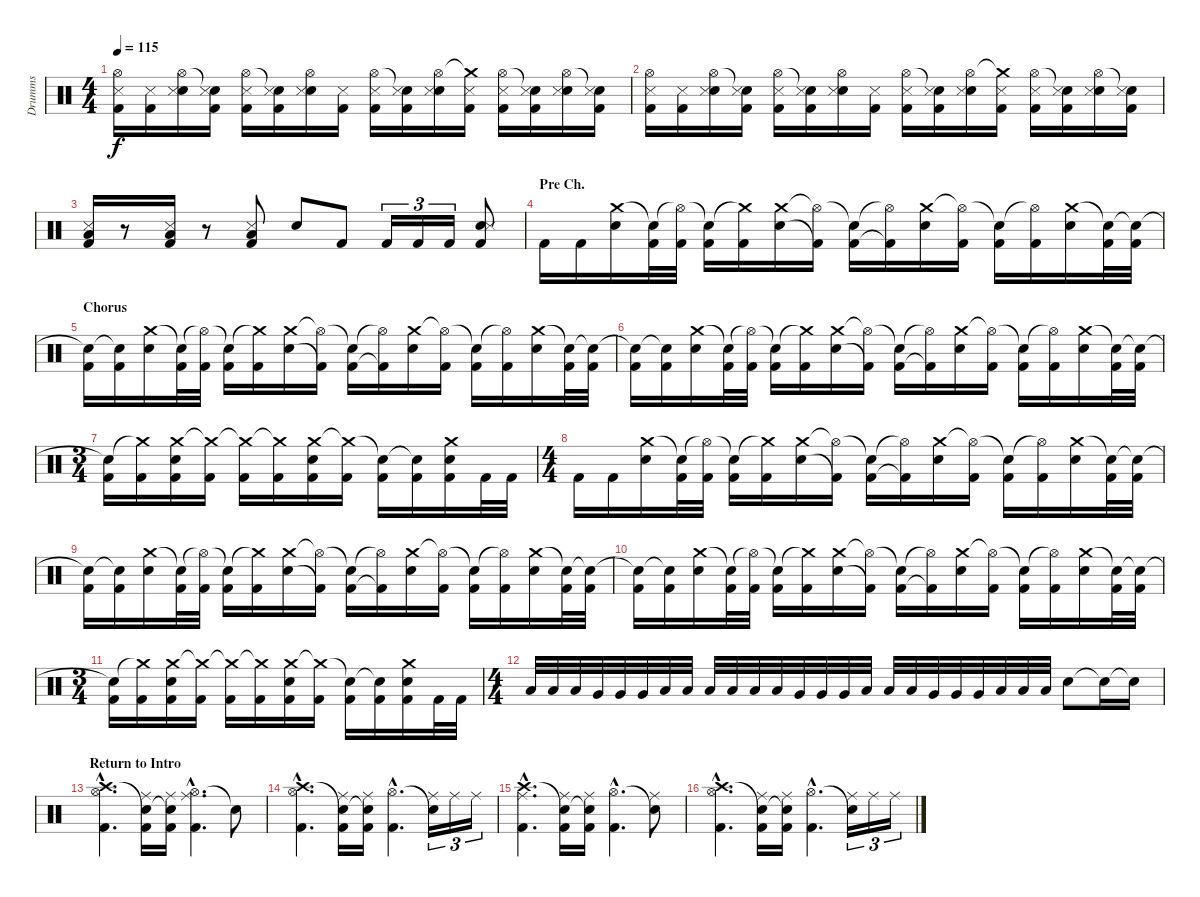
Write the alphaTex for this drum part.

\track ("Drumms" "Drumms") {instrument percussion}
\staff {score}
\articulation defaults
\ts (4 4)
\tempo 115
\clef neutral
\ks c
("Hi-Hat (open)" "Kick (hit) 2" "Snare (side stick) 3").16{dy f} ("Kick (hit) 2" "Snare (side stick) 3").16 ("Hi-Hat (open)" "Electric Snare (hit)" "Snare (side stick) 3").16 ("Snare (hit)"{t} "Kick (hit) 2" "Snare (side stick) 3").16 ("Hi-Hat (open)" "Kick (hit) 2" "Snare (side stick) 3").16 ("Snare (hit)"{t} "Kick (hit) 2" "Snare (side stick) 3").16 ("Hi-Hat (open)" "Electric Snare (hit)" "Snare (side stick) 3").16 ("Kick (hit) 2" "Snare (side stick) 3").16 ("Hi-Hat (open)" "Kick (hit) 2" "Snare (side stick) 3").16 ("Snare (hit)"{t} "Kick (hit) 2" "Snare (side stick) 3").16 ("Hi-Hat (open)" "Electric Snare (hit)" "Snare (side stick) 3").16 ("Crash medium (hit)"{t} "Kick (hit) 2" "Snare (side stick) 3").16 ("Hi-Hat (open)" "Kick (hit) 2" "Snare (side stick) 3").16 ("Snare (hit)"{t} "Kick (hit) 2" "Snare (side stick) 3").16 ("Hi-Hat (open)" "Electric Snare (hit)" "Snare (side stick) 3").16 ("Snare (hit)"{t} "Kick (hit) 2" "Snare (side stick) 3").16 |
("Hi-Hat (open)" "Kick (hit) 2" "Snare (side stick) 3").16 ("Kick (hit) 2" "Snare (side stick) 3").16 ("Hi-Hat (open)" "Electric Snare (hit)" "Snare (side stick) 3").16 ("Snare (hit)"{t} "Kick (hit) 2" "Snare (side stick) 3").16 ("Hi-Hat (open)" "Kick (hit) 2" "Snare (side stick) 3").16 ("Snare (hit)"{t} "Kick (hit) 2" "Snare (side stick) 3").16 ("Hi-Hat (open)" "Electric Snare (hit)" "Snare (side stick) 3").16 ("Kick (hit) 2" "Snare (side stick) 3").16 ("Hi-Hat (open)" "Kick (hit) 2" "Snare (side stick) 3").16 ("Snare (hit)"{t} "Kick (hit) 2" "Snare (side stick) 3").16 ("Hi-Hat (open)" "Electric Snare (hit)" "Snare (side stick) 3").16 ("Crash medium (hit)"{t} "Kick (hit) 2" "Snare (side stick) 3").16 ("Hi-Hat (open)" "Kick (hit) 2" "Snare (side stick) 3").16 ("Snare (hit)"{t} "Kick (hit) 2" "Snare (side stick) 3").16 ("Hi-Hat (open)" "Electric Snare (hit)" "Snare (side stick) 3").16 ("Snare (hit)"{t} "Kick (hit) 2" "Snare (side stick) 3").16 |
("Low Floor Tom (hit)" "Kick (hit) 2" "Snare (side stick) 3").16 r.8 ("Low Floor Tom (hit)" "Kick (hit) 2" "Snare (side stick) 3").16 r.8 ("Low Floor Tom (hit)" "Kick (hit) 2" "Snare (side stick) 3").8 "Electric Snare (hit)".8 "Kick (hit) 2".8 "Kick (hit) 2".16{tu (3 2)} "Kick (hit) 2".16{tu (3 2)} "Kick (hit) 2".16{tu (3 2)} ("Electric Snare (hit)" "Snare (side stick) 3" "Kick (hit) 2").8 |
\section ("" "Pre Ch.")
"Kick (hit) 2".16 "Kick (hit) 2".16 ("Crash medium (hit)" "Electric Snare (hit)").16 ("Snare (hit)"{t} "Kick (hit) 2").32 ("Hi-Hat (open)"{t} "Kick (hit) 2").32 ("Snare (hit)"{t} "Kick (hit) 2").16 ("Crash medium (hit)"{t} "Kick (hit) 2").16 ("Crash medium (hit)" "Electric Snare (hit)").16 ("Hi-Hat (open)"{t} "Kick (hit) 2"{t}).16 ("Snare (hit)"{t} "Kick (hit) 2").16 ("Hi-Hat (open)"{t} "Kick (hit) 2"{t}).16 ("Crash medium (hit)" "Electric Snare (hit)").16 ("Hi-Hat (open)"{t} "Kick (hit) 2").16 ("Snare (hit)"{t} "Kick (hit) 2").16 ("Hi-Hat (open)"{t} "Kick (hit) 2").16 ("Crash medium (hit)" "Electric Snare (hit)").16 ("Snare (hit)"{t} "Kick (hit) 2").32 ("Snare (hit)"{t} "Kick (hit) 2").32 |
\section ("" "Chorus")
("Snare (hit)"{t} "Kick (hit) 2").16 ("Snare (hit)"{t} "Kick (hit) 2").16 ("Crash medium (hit)" "Electric Snare (hit)").16 ("Snare (hit)"{t} "Kick (hit) 2").32 ("Hi-Hat (open)"{t} "Kick (hit) 2").32 ("Snare (hit)"{t} "Kick (hit) 2").16 ("Crash medium (hit)"{t} "Kick (hit) 2").16 ("Crash medium (hit)" "Electric Snare (hit)").16 ("Hi-Hat (open)"{t} "Kick (hit) 2"{t}).16 ("Snare (hit)"{t} "Kick (hit) 2").16 ("Hi-Hat (open)"{t} "Kick (hit) 2"{t}).16 ("Crash medium (hit)" "Electric Snare (hit)").16 ("Hi-Hat (open)"{t} "Kick (hit) 2").16 ("Snare (hit)"{t} "Kick (hit) 2").16 ("Hi-Hat (open)"{t} "Kick (hit) 2").16 ("Crash medium (hit)" "Electric Snare (hit)").16 ("Snare (hit)"{t} "Kick (hit) 2").32 ("Snare (hit)"{t} "Kick (hit) 2").32 |
("Snare (hit)"{t} "Kick (hit) 2").16 ("Snare (hit)"{t} "Kick (hit) 2").16 ("Crash medium (hit)" "Electric Snare (hit)").16 ("Snare (hit)"{t} "Kick (hit) 2").32 ("Hi-Hat (open)"{t} "Kick (hit) 2").32 ("Snare (hit)"{t} "Kick (hit) 2").16 ("Crash medium (hit)"{t} "Kick (hit) 2").16 ("Crash medium (hit)" "Electric Snare (hit)").16 ("Hi-Hat (open)"{t} "Kick (hit) 2"{t}).16 ("Snare (hit)"{t} "Kick (hit) 2").16 ("Hi-Hat (open)"{t} "Kick (hit) 2"{t}).16 ("Crash medium (hit)" "Electric Snare (hit)").16 ("Hi-Hat (open)"{t} "Kick (hit) 2").16 ("Snare (hit)"{t} "Kick (hit) 2").16 ("Hi-Hat (open)"{t} "Kick (hit) 2").16 ("Crash medium (hit)" "Electric Snare (hit)").16 ("Snare (hit)"{t} "Kick (hit) 2").32 ("Snare (hit)"{t} "Kick (hit) 2").32 |
\ts (3 4)
("Snare (hit)"{t} "Kick (hit) 2").16 ("Crash medium (hit)"{t} "Kick (hit) 2").16 ("Crash medium (hit)" "Kick (hit) 2" "Electric Snare (hit)").16 ("Crash medium (hit)"{t} "Kick (hit) 2").16 ("Crash medium (hit)"{t} "Kick (hit) 2").16 ("Crash medium (hit)"{t} "Kick (hit) 2").16 ("Crash medium (hit)" "Kick (hit) 2" "Electric Snare (hit)").16 ("Crash medium (hit)"{t} "Kick (hit) 2").16 ("Snare (hit)"{t} "Kick (hit) 2").16 ("Snare (hit)"{t} "Kick (hit) 2").16 ("Crash medium (hit)" "Kick (hit) 2" "Electric Snare (hit)").16 "Kick (hit) 2".32 "Kick (hit) 2".32 |
\ts (4 4)
"Kick (hit) 2".16 "Kick (hit) 2".16 ("Crash medium (hit)" "Electric Snare (hit)").16 ("Snare (hit)"{t} "Kick (hit) 2").32 ("Hi-Hat (open)"{t} "Kick (hit) 2").32 ("Snare (hit)"{t} "Kick (hit) 2").16 ("Crash medium (hit)"{t} "Kick (hit) 2").16 ("Crash medium (hit)" "Electric Snare (hit)").16 ("Hi-Hat (open)"{t} "Kick (hit) 2"{t}).16 ("Snare (hit)"{t} "Kick (hit) 2").16 ("Hi-Hat (open)"{t} "Kick (hit) 2"{t}).16 ("Crash medium (hit)" "Electric Snare (hit)").16 ("Hi-Hat (open)"{t} "Kick (hit) 2").16 ("Snare (hit)"{t} "Kick (hit) 2").16 ("Hi-Hat (open)"{t} "Kick (hit) 2").16 ("Crash medium (hit)" "Electric Snare (hit)").16 ("Snare (hit)"{t} "Kick (hit) 2").32 ("Snare (hit)"{t} "Kick (hit) 2").32 |
("Snare (hit)"{t} "Kick (hit) 2").16 ("Snare (hit)"{t} "Kick (hit) 2").16 ("Crash medium (hit)" "Electric Snare (hit)").16 ("Snare (hit)"{t} "Kick (hit) 2").32 ("Hi-Hat (open)"{t} "Kick (hit) 2").32 ("Snare (hit)"{t} "Kick (hit) 2").16 ("Crash medium (hit)"{t} "Kick (hit) 2").16 ("Crash medium (hit)" "Electric Snare (hit)").16 ("Hi-Hat (open)"{t} "Kick (hit) 2"{t}).16 ("Snare (hit)"{t} "Kick (hit) 2").16 ("Hi-Hat (open)"{t} "Kick (hit) 2"{t}).16 ("Crash medium (hit)" "Electric Snare (hit)").16 ("Hi-Hat (open)"{t} "Kick (hit) 2").16 ("Snare (hit)"{t} "Kick (hit) 2").16 ("Hi-Hat (open)"{t} "Kick (hit) 2").16 ("Crash medium (hit)" "Electric Snare (hit)").16 ("Snare (hit)"{t} "Kick (hit) 2").32 ("Snare (hit)"{t} "Kick (hit) 2").32 |
("Snare (hit)"{t} "Kick (hit) 2").16 ("Snare (hit)"{t} "Kick (hit) 2").16 ("Crash medium (hit)" "Electric Snare (hit)").16 ("Snare (hit)"{t} "Kick (hit) 2").32 ("Hi-Hat (open)"{t} "Kick (hit) 2").32 ("Snare (hit)"{t} "Kick (hit) 2").16 ("Crash medium (hit)"{t} "Kick (hit) 2").16 ("Crash medium (hit)" "Electric Snare (hit)").16 ("Hi-Hat (open)"{t} "Kick (hit) 2"{t}).16 ("Snare (hit)"{t} "Kick (hit) 2").16 ("Hi-Hat (open)"{t} "Kick (hit) 2"{t}).16 ("Crash medium (hit)" "Electric Snare (hit)").16 ("Hi-Hat (open)"{t} "Kick (hit) 2").16 ("Snare (hit)"{t} "Kick (hit) 2").16 ("Hi-Hat (open)"{t} "Kick (hit) 2").16 ("Crash medium (hit)" "Electric Snare (hit)").16 ("Snare (hit)"{t} "Kick (hit) 2").32 ("Snare (hit)"{t} "Kick (hit) 2").32 |
\ts (3 4)
("Snare (hit)"{t} "Kick (hit) 2").16 ("Crash medium (hit)"{t} "Kick (hit) 2").16 ("Crash medium (hit)" "Kick (hit) 2" "Electric Snare (hit)").16 ("Crash medium (hit)"{t} "Kick (hit) 2").16 ("Crash medium (hit)"{t} "Kick (hit) 2").16 ("Crash medium (hit)"{t} "Kick (hit) 2").16 ("Crash medium (hit)" "Kick (hit) 2" "Electric Snare (hit)").16 ("Crash medium (hit)"{t} "Kick (hit) 2").16 ("Snare (hit)"{t} "Kick (hit) 2").16 ("Snare (hit)"{t} "Kick (hit) 2").16 ("Crash medium (hit)" "Kick (hit) 2" "Electric Snare (hit)").16 "Kick (hit) 2".32 "Kick (hit) 2".32 |
\ts (4 4)
"Low Floor Tom (hit)".32 "Low Floor Tom (hit)".32 "Low Floor Tom (hit)".32 "Very Low Tom (hit)".32 "Very Low Tom (hit)".32 "Very Low Tom (hit)".32 "Low Tom (hit)".32 "Low Tom (hit)".32 "Low Tom (hit)".32 "Low Floor Tom (hit)".32 "Low Floor Tom (hit)".32 "Low Floor Tom (hit)".32 "Very Low Tom (hit)".32 "Very Low Tom (hit)".32 "Very Low Tom (hit)".32 "Low Tom (hit)".32 "Low Tom (hit)".32 "Low Tom (hit)".32 "Very Low Tom (hit)".32 "Very Low Tom (hit)".32 "Very Low Tom (hit)".32 "Low Tom (hit)".32 "Low Tom (hit)".32 "Low Tom (hit)".32 "Electric Snare (hit)".8 "Electric Snare (hit)"{t}.16 "Electric Snare (hit)"{t}.16 |
\section ("" "Return to Intro")
("Crash high (hit)"{hac} "Hi-Hat (open)"{hac} "Kick (hit) 2"{hac}).4{d} ("Snare (hit)"{t} "Kick (hit) 2" "Ride (middle)").16 ("Snare (hit)"{t} "Kick (hit) 2" "Ride (middle)").16 ("Hi-Hat (open)"{hac} "Kick (hit) 2"{hac} "Ride (middle)"{hac}).4{d} "Snare (hit)"{t}.8 |
("Crash high (hit)"{hac} "Hi-Hat (open)"{hac} "Kick (hit) 2"{hac}).4{d} ("Snare (hit)"{t} "Kick (hit) 2" "Ride (middle)").16 ("Snare (hit)"{t} "Kick (hit) 2" "Ride (middle)").16 ("Hi-Hat (open)"{hac} "Kick (hit) 2"{hac}).4{d} ("Snare (hit)"{t} "Ride (middle)").16{tu (3 2)} "Ride (middle)".16{tu (3 2)} "Ride (middle)".16{tu (3 2)} |
("Crash high (hit)"{hac} "Ride (middle)"{hac} "Kick (hit) 2"{hac}).4{d} ("Snare (hit)"{t} "Kick (hit) 2" "Ride (middle)").16 ("Snare (hit)"{t} "Kick (hit) 2" "Ride (middle)").16 ("Hi-Hat (open)"{hac} "Kick (hit) 2"{hac}).4{d} ("Snare (hit)"{t} "Ride (middle)").8 |
("Crash high (hit)"{hac} "Hi-Hat (open)"{hac} "Kick (hit) 2"{hac}).4{d} ("Snare (hit)"{t} "Kick (hit) 2" "Ride (middle)").16 ("Snare (hit)"{t} "Kick (hit) 2" "Ride (middle)").16 ("Hi-Hat (open)"{hac} "Kick (hit) 2"{hac}).4{d} ("Snare (hit)"{t} "Ride (middle)").16{tu (3 2)} "Ride (middle)".16{tu (3 2)} "Ride (middle)".16{tu (3 2)}
